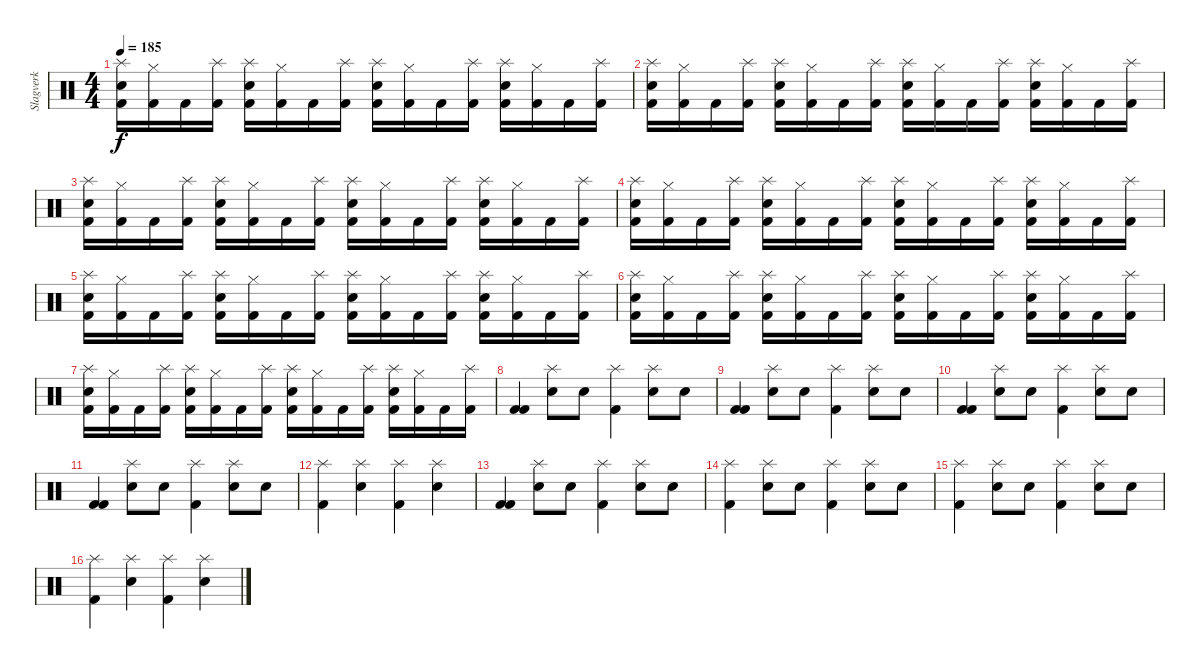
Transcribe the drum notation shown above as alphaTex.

\track ("Slagverk" "Slagverk") {instrument percussion}
\staff {score}
\articulation defaults
\ts (4 4)
\tempo 185
\clef neutral
\ks c
("Kick (hit) 2" "Electric Snare (hit)" "Splash (hit)").16{dy f} ("Kick (hit) 2" "Hi-Hat (closed)").16 "Kick (hit) 2".16 ("Kick (hit) 2" "Splash (hit)").16 ("Kick (hit) 2" "Electric Snare (hit)" "Splash (hit)").16 ("Kick (hit) 2" "Hi-Hat (closed)").16 "Kick (hit) 2".16 ("Kick (hit) 2" "Splash (hit)").16 ("Kick (hit) 2" "Electric Snare (hit)" "Splash (hit)").16 ("Kick (hit) 2" "Hi-Hat (closed)").16 "Kick (hit) 2".16 ("Kick (hit) 2" "Splash (hit)").16 ("Kick (hit) 2" "Electric Snare (hit)" "Splash (hit)").16 ("Kick (hit) 2" "Hi-Hat (closed)").16 "Kick (hit) 2".16 ("Kick (hit) 2" "Splash (hit)").16 |
("Kick (hit) 2" "Electric Snare (hit)" "Splash (hit)").16 ("Kick (hit) 2" "Hi-Hat (closed)").16 "Kick (hit) 2".16 ("Kick (hit) 2" "Splash (hit)").16 ("Kick (hit) 2" "Electric Snare (hit)" "Splash (hit)").16 ("Kick (hit) 2" "Hi-Hat (closed)").16 "Kick (hit) 2".16 ("Kick (hit) 2" "Splash (hit)").16 ("Kick (hit) 2" "Electric Snare (hit)" "Splash (hit)").16 ("Kick (hit) 2" "Hi-Hat (closed)").16 "Kick (hit) 2".16 ("Kick (hit) 2" "Splash (hit)").16 ("Kick (hit) 2" "Electric Snare (hit)" "Splash (hit)").16 ("Kick (hit) 2" "Hi-Hat (closed)").16 "Kick (hit) 2".16 ("Kick (hit) 2" "Splash (hit)").16 |
("Kick (hit) 2" "Electric Snare (hit)" "Splash (hit)").16 ("Kick (hit) 2" "Hi-Hat (closed)").16 "Kick (hit) 2".16 ("Kick (hit) 2" "Splash (hit)").16 ("Kick (hit) 2" "Electric Snare (hit)" "Splash (hit)").16 ("Kick (hit) 2" "Hi-Hat (closed)").16 "Kick (hit) 2".16 ("Kick (hit) 2" "Splash (hit)").16 ("Kick (hit) 2" "Electric Snare (hit)" "Splash (hit)").16 ("Kick (hit) 2" "Hi-Hat (closed)").16 "Kick (hit) 2".16 ("Kick (hit) 2" "Splash (hit)").16 ("Kick (hit) 2" "Electric Snare (hit)" "Splash (hit)").16 ("Kick (hit) 2" "Hi-Hat (closed)").16 "Kick (hit) 2".16 ("Kick (hit) 2" "Splash (hit)").16 |
("Kick (hit) 2" "Electric Snare (hit)" "Splash (hit)").16 ("Kick (hit) 2" "Hi-Hat (closed)").16 "Kick (hit) 2".16 ("Kick (hit) 2" "Splash (hit)").16 ("Kick (hit) 2" "Electric Snare (hit)" "Splash (hit)").16 ("Kick (hit) 2" "Hi-Hat (closed)").16 "Kick (hit) 2".16 ("Kick (hit) 2" "Splash (hit)").16 ("Kick (hit) 2" "Electric Snare (hit)" "Splash (hit)").16 ("Kick (hit) 2" "Hi-Hat (closed)").16 "Kick (hit) 2".16 ("Kick (hit) 2" "Splash (hit)").16 ("Kick (hit) 2" "Electric Snare (hit)" "Splash (hit)").16 ("Kick (hit) 2" "Hi-Hat (closed)").16 "Kick (hit) 2".16 ("Kick (hit) 2" "Splash (hit)").16 |
("Kick (hit) 2" "Electric Snare (hit)" "Splash (hit)").16 ("Kick (hit) 2" "Hi-Hat (closed)").16 "Kick (hit) 2".16 ("Kick (hit) 2" "Splash (hit)").16 ("Kick (hit) 2" "Electric Snare (hit)" "Splash (hit)").16 ("Kick (hit) 2" "Hi-Hat (closed)").16 "Kick (hit) 2".16 ("Kick (hit) 2" "Splash (hit)").16 ("Kick (hit) 2" "Electric Snare (hit)" "Splash (hit)").16 ("Kick (hit) 2" "Hi-Hat (closed)").16 "Kick (hit) 2".16 ("Kick (hit) 2" "Splash (hit)").16 ("Kick (hit) 2" "Electric Snare (hit)" "Splash (hit)").16 ("Kick (hit) 2" "Hi-Hat (closed)").16 "Kick (hit) 2".16 ("Kick (hit) 2" "Splash (hit)").16 |
("Kick (hit) 2" "Electric Snare (hit)" "Splash (hit)").16 ("Kick (hit) 2" "Hi-Hat (closed)").16 "Kick (hit) 2".16 ("Kick (hit) 2" "Splash (hit)").16 ("Kick (hit) 2" "Electric Snare (hit)" "Splash (hit)").16 ("Kick (hit) 2" "Hi-Hat (closed)").16 "Kick (hit) 2".16 ("Kick (hit) 2" "Splash (hit)").16 ("Kick (hit) 2" "Electric Snare (hit)" "Splash (hit)").16 ("Kick (hit) 2" "Hi-Hat (closed)").16 "Kick (hit) 2".16 ("Kick (hit) 2" "Splash (hit)").16 ("Kick (hit) 2" "Electric Snare (hit)" "Splash (hit)").16 ("Kick (hit) 2" "Hi-Hat (closed)").16 "Kick (hit) 2".16 ("Kick (hit) 2" "Splash (hit)").16 |
("Kick (hit) 2" "Electric Snare (hit)" "Splash (hit)").16 ("Kick (hit) 2" "Hi-Hat (closed)").16 "Kick (hit) 2".16 ("Kick (hit) 2" "Splash (hit)").16 ("Kick (hit) 2" "Electric Snare (hit)" "Splash (hit)").16 ("Kick (hit) 2" "Hi-Hat (closed)").16 "Kick (hit) 2".16 ("Kick (hit) 2" "Splash (hit)").16 ("Kick (hit) 2" "Electric Snare (hit)" "Splash (hit)").16 ("Kick (hit) 2" "Hi-Hat (closed)").16 "Kick (hit) 2".16 ("Kick (hit) 2" "Splash (hit)").16 ("Kick (hit) 2" "Electric Snare (hit)" "Splash (hit)").16 ("Kick (hit) 2" "Hi-Hat (closed)").16 "Kick (hit) 2".16 ("Kick (hit) 2" "Splash (hit)").16 |
("Kick (hit) 2" "Kick (hit) 2").4 ("Splash (hit)" "Electric Snare (hit)").8 "Electric Snare (hit)".8 ("Splash (hit)" "Kick (hit) 2").4 ("Splash (hit)" "Electric Snare (hit)").8 "Electric Snare (hit)".8 |
("Kick (hit) 2" "Kick (hit) 2").4 ("Splash (hit)" "Electric Snare (hit)").8 "Electric Snare (hit)".8 ("Splash (hit)" "Kick (hit) 2").4 ("Splash (hit)" "Electric Snare (hit)").8 "Electric Snare (hit)".8 |
("Kick (hit) 2" "Kick (hit) 2").4 ("Splash (hit)" "Electric Snare (hit)").8 "Electric Snare (hit)".8 ("Splash (hit)" "Kick (hit) 2").4 ("Splash (hit)" "Electric Snare (hit)").8 "Electric Snare (hit)".8 |
("Kick (hit) 2" "Kick (hit) 2").4 ("Splash (hit)" "Electric Snare (hit)").8 "Electric Snare (hit)".8 ("Splash (hit)" "Kick (hit) 2").4 ("Splash (hit)" "Electric Snare (hit)").8 "Electric Snare (hit)".8 |
("Splash (hit)" "Kick (hit) 2").4 ("Splash (hit)" "Electric Snare (hit)").4 ("Splash (hit)" "Kick (hit) 2").4 ("Splash (hit)" "Electric Snare (hit)").4 |
("Kick (hit) 2" "Kick (hit) 2").4 ("Splash (hit)" "Electric Snare (hit)").8 "Electric Snare (hit)".8 ("Splash (hit)" "Kick (hit) 2").4 ("Splash (hit)" "Electric Snare (hit)").8 "Electric Snare (hit)".8 |
("Splash (hit)" "Kick (hit) 2").4 ("Splash (hit)" "Electric Snare (hit)").8 "Electric Snare (hit)".8 ("Splash (hit)" "Kick (hit) 2").4 ("Splash (hit)" "Electric Snare (hit)").8 "Electric Snare (hit)".8 |
("Splash (hit)" "Kick (hit) 2").4 ("Splash (hit)" "Electric Snare (hit)").8 "Electric Snare (hit)".8 ("Splash (hit)" "Kick (hit) 2").4 ("Splash (hit)" "Electric Snare (hit)").8 "Electric Snare (hit)".8 |
("Splash (hit)" "Kick (hit) 2").4 ("Splash (hit)" "Electric Snare (hit)").4 ("Splash (hit)" "Kick (hit) 2").4 ("Splash (hit)" "Electric Snare (hit)").4
